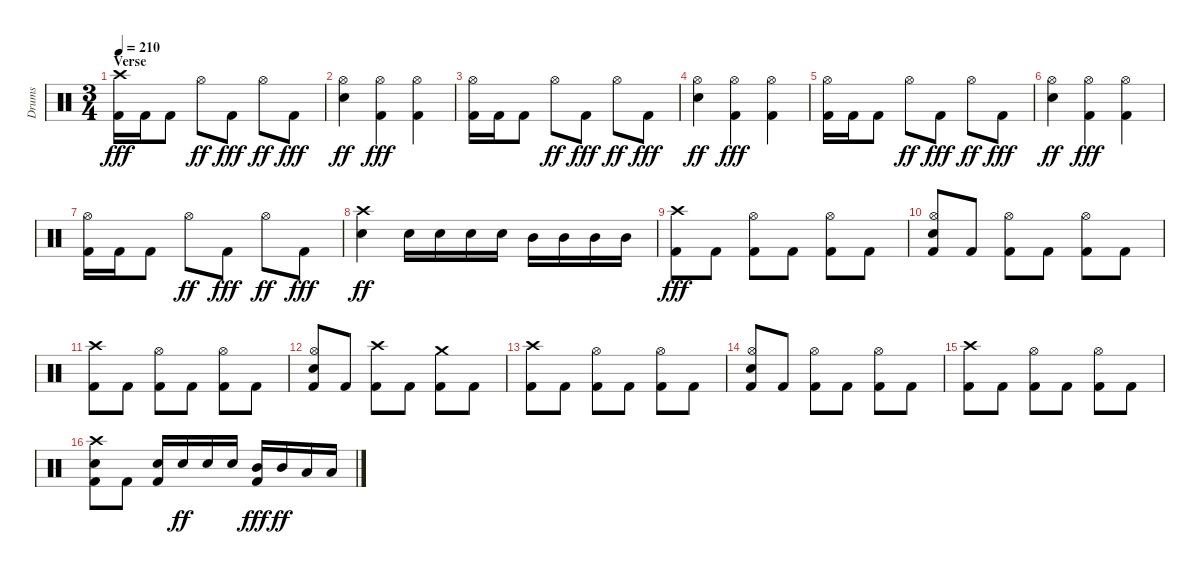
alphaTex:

\track ("Drums" "Drums") {instrument percussion}
\staff {score}
\articulation defaults
\ts (3 4)
\section ("" "Verse")
\tempo 210
\clef neutral
\ks c
("Crash high (hit)" "Kick (hit) 2").16{dy fff} "Kick (hit) 2".16 "Kick (hit) 2".8 "Hi-Hat (open)".8{dy ff} "Kick (hit) 2".8{dy fff} "Hi-Hat (open)".8{dy ff} "Kick (hit) 2".8{dy fff} |
("Hi-Hat (open)" "Snare (hit) 2").4{dy ff} ("Hi-Hat (open)" "Kick (hit) 2").4{dy fff} ("Hi-Hat (open)" "Kick (hit) 2").4 |
("Hi-Hat (open)" "Kick (hit) 2").16 "Kick (hit) 2".16 "Kick (hit) 2".8 "Hi-Hat (open)".8{dy ff} "Kick (hit) 2".8{dy fff} "Hi-Hat (open)".8{dy ff} "Kick (hit) 2".8{dy fff} |
("Hi-Hat (open)" "Snare (hit) 2").4{dy ff} ("Hi-Hat (open)" "Kick (hit) 2").4{dy fff} ("Hi-Hat (open)" "Kick (hit) 2").4 |
("Hi-Hat (open)" "Kick (hit) 2").16 "Kick (hit) 2".16 "Kick (hit) 2".8 "Hi-Hat (open)".8{dy ff} "Kick (hit) 2".8{dy fff} "Hi-Hat (open)".8{dy ff} "Kick (hit) 2".8{dy fff} |
("Hi-Hat (open)" "Snare (hit) 2").4{dy ff} ("Hi-Hat (open)" "Kick (hit) 2").4{dy fff} ("Hi-Hat (open)" "Kick (hit) 2").4 |
("Hi-Hat (open)" "Kick (hit) 2").16 "Kick (hit) 2".16 "Kick (hit) 2".8 "Hi-Hat (open)".8{dy ff} "Kick (hit) 2".8{dy fff} "Hi-Hat (open)".8{dy ff} "Kick (hit) 2".8{dy fff} |
("Crash high (hit)" "Snare (hit) 2").4{dy ff} "Snare (hit) 2".16 "Snare (hit) 2".16 "Snare (hit) 2".16 "Snare (hit) 2".16 "Mid Tom (hit)".16 "Mid Tom (hit)".16 "Mid Tom (hit)".16 "Mid Tom (hit)".16 |
("Crash high (hit)" "Kick (hit) 2").8{dy fff} "Kick (hit) 2".8 ("Hi-Hat (open)" "Kick (hit) 2").8 "Kick (hit) 2".8 ("Hi-Hat (open)" "Kick (hit) 2").8 "Kick (hit) 2".8 |
("Hi-Hat (open)" "Snare (hit) 2" "Kick (hit) 2").8 "Kick (hit) 2".8 ("Hi-Hat (open)" "Kick (hit) 2").8 "Kick (hit) 2".8 ("Hi-Hat (open)" "Kick (hit) 2").8 "Kick (hit) 2".8 |
("Crash high (hit)" "Kick (hit) 2").8 "Kick (hit) 2".8 ("Hi-Hat (open)" "Kick (hit) 2").8 "Kick (hit) 2".8 ("Hi-Hat (open)" "Kick (hit) 2").8 "Kick (hit) 2".8 |
("Hi-Hat (open)" "Snare (hit) 2" "Kick (hit) 2").8 "Kick (hit) 2".8 ("Crash high (hit)" "Kick (hit) 2").8 "Kick (hit) 2".8 ("Crash medium (hit)" "Kick (hit) 2").8 "Kick (hit) 2".8 |
("Crash high (hit)" "Kick (hit) 2").8 "Kick (hit) 2".8 ("Hi-Hat (open)" "Kick (hit) 2").8 "Kick (hit) 2".8 ("Hi-Hat (open)" "Kick (hit) 2").8 "Kick (hit) 2".8 |
("Hi-Hat (open)" "Snare (hit) 2" "Kick (hit) 2").8 "Kick (hit) 2".8 ("Hi-Hat (open)" "Kick (hit) 2").8 "Kick (hit) 2".8 ("Hi-Hat (open)" "Kick (hit) 2").8 "Kick (hit) 2".8 |
("Crash high (hit)" "Kick (hit) 2").8 "Kick (hit) 2".8 ("Hi-Hat (open)" "Kick (hit) 2").8 "Kick (hit) 2".8 ("Hi-Hat (open)" "Kick (hit) 2").8 "Kick (hit) 2".8 |
("Crash high (hit)" "Snare (hit) 2" "Kick (hit) 2").8 "Kick (hit) 2".8 ("Snare (hit) 2" "Kick (hit) 2").16 "Snare (hit) 2".16{dy ff} "Snare (hit) 2".16 "Snare (hit) 2".16 ("Mid Tom (hit)" "Kick (hit) 2").16{dy fff} "Mid Tom (hit)".16{dy ff} "Low Tom (hit)".16 "Low Tom (hit)".16
